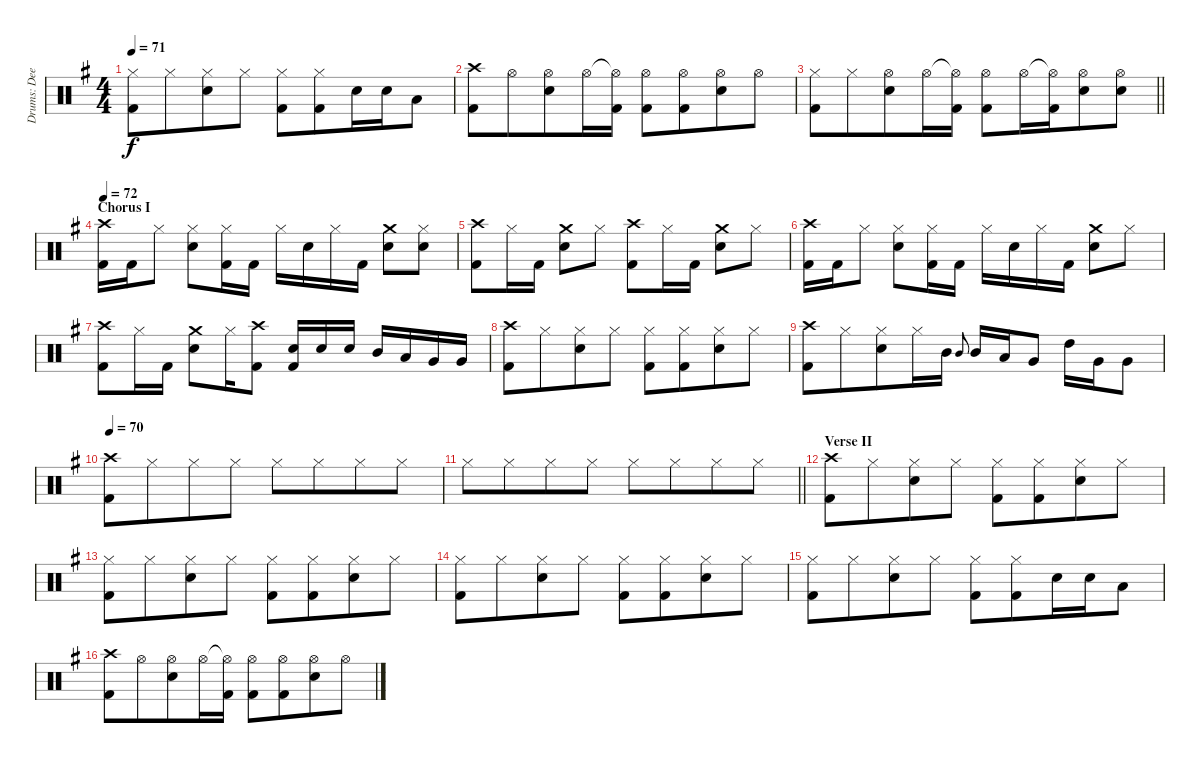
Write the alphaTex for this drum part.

\track ("Drums: Deen" "Drums: Dee") {instrument percussion}
\staff {score}
\articulation defaults
\ts (4 4)
\tempo 71
\clef neutral
\ks g
("Hi-Hat (closed)" "Kick (hit) 2").8{dy f} "Hi-Hat (closed)".8{beam merge} ("Hi-Hat (closed)" "Electric Snare (hit)").8 "Hi-Hat (closed)".8 ("Hi-Hat (closed)" "Kick (hit) 2").8 ("Hi-Hat (closed)" "Kick (hit) 2").8{beam merge} "Electric Snare (hit)".16{beam merge} "Electric Snare (hit)".16{beam merge} "Low Tom (hit)".8 |
("Crash high (hit)" "Kick (hit) 2").8 "Hi-Hat (open)".8{beam merge} ("Hi-Hat (open)" "Electric Snare (hit)").8 "Hi-Hat (open)".16 ("Hi-Hat (open)"{t} "Kick (hit) 2").16 ("Hi-Hat (open)" "Kick (hit) 2").8 ("Hi-Hat (open)" "Kick (hit) 2").8{beam merge} ("Hi-Hat (open)" "Electric Snare (hit)").8 "Hi-Hat (open)".8 |
\barLineRight lightlight
("Hi-Hat (closed)" "Kick (hit) 2").8 "Hi-Hat (closed)".8{beam merge} ("Hi-Hat (open)" "Electric Snare (hit)").8 "Hi-Hat (open)".16 ("Hi-Hat (open)"{t} "Kick (hit) 2").16 ("Hi-Hat (open)" "Kick (hit) 2").8 "Hi-Hat (open)".16 ("Hi-Hat (open)"{t} "Kick (hit) 2").16{beam merge} ("Hi-Hat (open)" "Electric Snare (hit)").8{beam merge} ("Hi-Hat (open)" "Electric Snare (hit)").8 |
\section ("" "Chorus I")
\tempo 72
("Crash high (hit)" "Kick (hit) 2").16 "Kick (hit) 2".16 "Hi-Hat (closed)".8 ("Hi-Hat (closed)" "Electric Snare (hit)").8 ("Hi-Hat (closed)" "Kick (hit) 2").16 "Kick (hit) 2".16 "Hi-Hat (closed)".16 "Electric Snare (hit)".16 "Hi-Hat (closed)".16 "Kick (hit) 2".16 ("Crash medium (hit)" "Electric Snare (hit)").8 ("Hi-Hat (closed)" "Electric Snare (hit)").8 |
("Crash high (hit)" "Kick (hit) 2").8 "Hi-Hat (closed)".16 "Kick (hit) 2".16 ("Crash medium (hit)" "Electric Snare (hit)").8 "Hi-Hat (closed)".8 ("Crash high (hit)" "Kick (hit) 2").8 "Hi-Hat (closed)".16 "Kick (hit) 2".16 ("Crash medium (hit)" "Electric Snare (hit)").8 "Hi-Hat (closed)".8 |
("Crash high (hit)" "Kick (hit) 2").16 "Kick (hit) 2".16 "Hi-Hat (closed)".8 ("Hi-Hat (closed)" "Electric Snare (hit)").8 ("Hi-Hat (closed)" "Kick (hit) 2").16 "Kick (hit) 2".16 "Hi-Hat (closed)".16 "Electric Snare (hit)".16 "Hi-Hat (closed)".16 "Kick (hit) 2".16 ("Crash medium (hit)" "Electric Snare (hit)").8 "Hi-Hat (closed)".8 |
("Crash high (hit)" "Kick (hit) 2").8 "Hi-Hat (closed)".16 "Kick (hit) 2".16 ("Crash medium (hit)" "Electric Snare (hit)").8 "Hi-Hat (closed)".16 ("Crash high (hit)" "Kick (hit) 2").8 ("Electric Snare (hit)" "Kick (hit) 2").16 "Electric Snare (hit)".16 "Electric Snare (hit)".16{beam split} "Mid Tom (hit)".16 "Low Tom (hit)".16 "Very Low Tom (hit)".16 "Very Low Tom (hit)".16 |
("Crash high (hit)" "Kick (hit) 2").8 "Hi-Hat (closed)".8{beam merge} ("Hi-Hat (closed)" "Electric Snare (hit)").8 "Hi-Hat (closed)".8 ("Hi-Hat (closed)" "Kick (hit) 2").8 ("Hi-Hat (closed)" "Kick (hit) 2").8{beam merge} ("Hi-Hat (closed)" "Electric Snare (hit)").8 "Hi-Hat (closed)".8 |
("Crash high (hit)" "Kick (hit) 2").8 "Hi-Hat (closed)".8{beam merge} ("Hi-Hat (closed)" "Electric Snare (hit)").8 "Hi-Hat (closed)".16 "Mid Tom (hit)".16 "Mid Tom (hit)".8{gr onbeat} "Mid Tom (hit)".16 "Low Tom (hit)".16{beam merge} "Very Low Tom (hit)".8 "High Tom (hit)".16 "Very Low Tom (hit)".16{beam merge} "Very Low Tom (hit)".8 |
\tempo 70
("Crash high (hit)" "Kick (hit) 2").8 "Hi-Hat (closed)".8{beam merge} "Hi-Hat (closed)".8 "Hi-Hat (closed)".8 "Hi-Hat (closed)".8 "Hi-Hat (closed)".8{beam merge} "Hi-Hat (closed)".8 "Hi-Hat (closed)".8 |
\barLineRight lightlight "Hi-Hat (closed)".8 "Hi-Hat (closed)".8{beam merge} "Hi-Hat (closed)".8 "Hi-Hat (closed)".8 "Hi-Hat (closed)".8 "Hi-Hat (closed)".8{beam merge} "Hi-Hat (closed)".8 "Hi-Hat (closed)".8
|
\section ("" "Verse II")
("Crash high (hit)" "Kick (hit) 2").8 "Hi-Hat (closed)".8{beam merge} ("Hi-Hat (closed)" "Electric Snare (hit)").8 "Hi-Hat (closed)".8 ("Hi-Hat (closed)" "Kick (hit) 2").8 ("Hi-Hat (closed)" "Kick (hit) 2").8{beam merge} ("Hi-Hat (closed)" "Electric Snare (hit)").8 "Hi-Hat (closed)".8 |
("Hi-Hat (closed)" "Kick (hit) 2").8 "Hi-Hat (closed)".8{beam merge} ("Hi-Hat (closed)" "Electric Snare (hit)").8 "Hi-Hat (closed)".8 ("Hi-Hat (closed)" "Kick (hit) 2").8 ("Hi-Hat (closed)" "Kick (hit) 2").8{beam merge} ("Hi-Hat (closed)" "Electric Snare (hit)").8 "Hi-Hat (closed)".8 |
("Hi-Hat (closed)" "Kick (hit) 2").8 "Hi-Hat (closed)".8{beam merge} ("Hi-Hat (closed)" "Electric Snare (hit)").8 "Hi-Hat (closed)".8 ("Hi-Hat (closed)" "Kick (hit) 2").8 ("Hi-Hat (closed)" "Kick (hit) 2").8{beam merge} ("Hi-Hat (closed)" "Electric Snare (hit)").8 "Hi-Hat (closed)".8 |
("Hi-Hat (closed)" "Kick (hit) 2").8 "Hi-Hat (closed)".8{beam merge} ("Hi-Hat (closed)" "Electric Snare (hit)").8 "Hi-Hat (closed)".8 ("Hi-Hat (closed)" "Kick (hit) 2").8 ("Hi-Hat (closed)" "Kick (hit) 2").8{beam merge} "Electric Snare (hit)".16{beam merge} "Electric Snare (hit)".16{beam merge} "Low Tom (hit)".8 |
("Crash high (hit)" "Kick (hit) 2").8 "Hi-Hat (open)".8{beam merge} ("Hi-Hat (open)" "Electric Snare (hit)").8 "Hi-Hat (open)".16 ("Hi-Hat (open)"{t} "Kick (hit) 2").16 ("Hi-Hat (open)" "Kick (hit) 2").8 ("Hi-Hat (open)" "Kick (hit) 2").8{beam merge} ("Hi-Hat (open)" "Electric Snare (hit)").8 "Hi-Hat (open)".8
